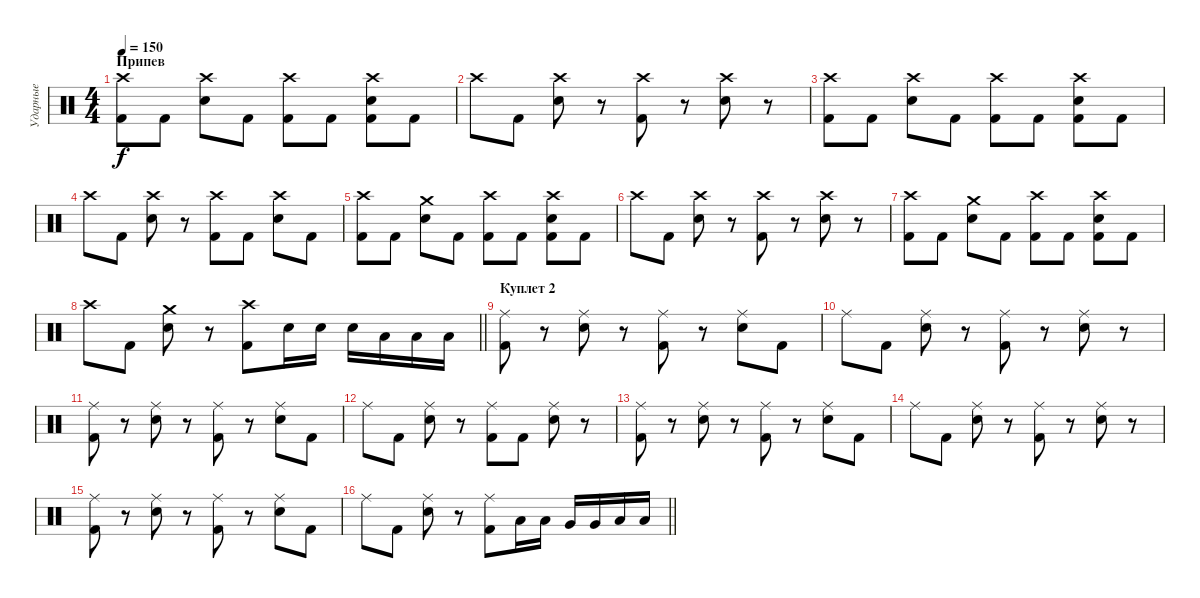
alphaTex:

\track ("Ударные" "Ударные") {instrument percussion}
\staff {score}
\articulation defaults
\ts (4 4)
\section ("" "Припев")
\tempo 150
\clef neutral
\ks c
("Crash high (hit)" "Kick (hit) 2").8{dy f} "Kick (hit) 2".8 ("Crash high (hit)" "Snare (hit) 2").8 "Kick (hit) 2".8 ("Crash high (hit)" "Kick (hit) 2").8 "Kick (hit) 2".8 ("Crash high (hit)" "Snare (hit) 2" "Kick (hit) 2").8 "Kick (hit) 2".8 |
"Crash high (hit)".8 "Kick (hit) 2".8 ("Crash high (hit)" "Snare (hit) 2").8 r.8 ("Crash high (hit)" "Kick (hit) 2").8 r.8 ("Crash high (hit)" "Snare (hit) 2").8 r.8 |
("Crash high (hit)" "Kick (hit) 2").8 "Kick (hit) 2".8 ("Crash high (hit)" "Snare (hit) 2").8 "Kick (hit) 2".8 ("Crash high (hit)" "Kick (hit) 2").8 "Kick (hit) 2".8 ("Crash high (hit)" "Snare (hit) 2" "Kick (hit) 2").8 "Kick (hit) 2".8 |
"Crash high (hit)".8 "Kick (hit) 2".8 ("Crash high (hit)" "Snare (hit) 2").8 r.8 ("Crash high (hit)" "Kick (hit) 2").8 "Kick (hit) 2".8 ("Crash high (hit)" "Snare (hit) 2").8 "Kick (hit) 2".8 |
("Crash high (hit)" "Kick (hit) 2").8 "Kick (hit) 2".8 ("Crash medium (hit)" "Snare (hit) 2").8 "Kick (hit) 2".8 ("Crash high (hit)" "Kick (hit) 2").8 "Kick (hit) 2".8 ("Crash high (hit)" "Snare (hit) 2" "Kick (hit) 2").8 "Kick (hit) 2".8 |
"Crash high (hit)".8 "Kick (hit) 2".8 ("Crash high (hit)" "Snare (hit) 2").8 r.8 ("Crash high (hit)" "Kick (hit) 2").8 r.8 ("Crash high (hit)" "Snare (hit) 2").8 r.8 |
("Crash high (hit)" "Kick (hit) 2").8 "Kick (hit) 2".8 ("Crash medium (hit)" "Snare (hit) 2").8 "Kick (hit) 2".8 ("Crash high (hit)" "Kick (hit) 2").8 "Kick (hit) 2".8 ("Crash high (hit)" "Snare (hit) 2" "Kick (hit) 2").8 "Kick (hit) 2".8 |
\barLineRight lightlight "Crash high (hit)".8 "Kick (hit) 2".8
("Crash medium (hit)" "Snare (hit) 2").8 r.8 ("Crash high (hit)" "Kick (hit) 2").8 "Snare (hit) 2".16 "Snare (hit) 2".16 "Snare (hit) 2".16 "Low Floor Tom (hit)".16 "Low Floor Tom (hit)".16 "Low Floor Tom (hit)".16 |
\section ("" "Куплет 2")
("Ride (middle)" "Kick (hit) 2").8 r.8 ("Ride (middle)" "Snare (hit) 2").8 r.8 ("Ride (middle)" "Kick (hit) 2").8 r.8 ("Ride (middle)" "Snare (hit) 2").8 "Kick (hit) 2".8 |
"Ride (middle)".8 "Kick (hit) 2".8 ("Ride (middle)" "Snare (hit) 2").8 r.8 ("Ride (middle)" "Kick (hit) 2").8 r.8 ("Ride (middle)" "Snare (hit) 2").8 r.8 |
("Ride (middle)" "Kick (hit) 2").8 r.8 ("Ride (middle)" "Snare (hit) 2").8 r.8 ("Ride (middle)" "Kick (hit) 2").8 r.8 ("Ride (middle)" "Snare (hit) 2").8 "Kick (hit) 2".8 |
"Ride (middle)".8 "Kick (hit) 2".8 ("Ride (middle)" "Snare (hit) 2").8 r.8 ("Ride (middle)" "Kick (hit) 2").8 "Kick (hit) 2".8 ("Ride (middle)" "Snare (hit) 2").8 r.8 |
("Ride (middle)" "Kick (hit) 2").8 r.8 ("Ride (middle)" "Snare (hit) 2").8 r.8 ("Ride (middle)" "Kick (hit) 2").8 r.8 ("Ride (middle)" "Snare (hit) 2").8 "Kick (hit) 2".8 |
"Ride (middle)".8 "Kick (hit) 2".8 ("Ride (middle)" "Snare (hit) 2").8 r.8 ("Ride (middle)" "Kick (hit) 2").8 r.8 ("Ride (middle)" "Snare (hit) 2").8 r.8 |
("Ride (middle)" "Kick (hit) 2").8 r.8 ("Ride (middle)" "Snare (hit) 2").8 r.8 ("Ride (middle)" "Kick (hit) 2").8 r.8 ("Ride (middle)" "Snare (hit) 2").8 "Kick (hit) 2".8 |
\barLineRight lightlight "Ride (middle)".8 "Kick (hit) 2".8
("Ride (middle)" "Snare (hit) 2").8 r.8 ("Ride (middle)" "Kick (hit) 2").8 "Low Floor Tom (hit)".16 "Low Floor Tom (hit)".16 "Very Low Tom (hit)".16 "Very Low Tom (hit)".16 "Low Tom (hit)".16 "Low Tom (hit)".16
